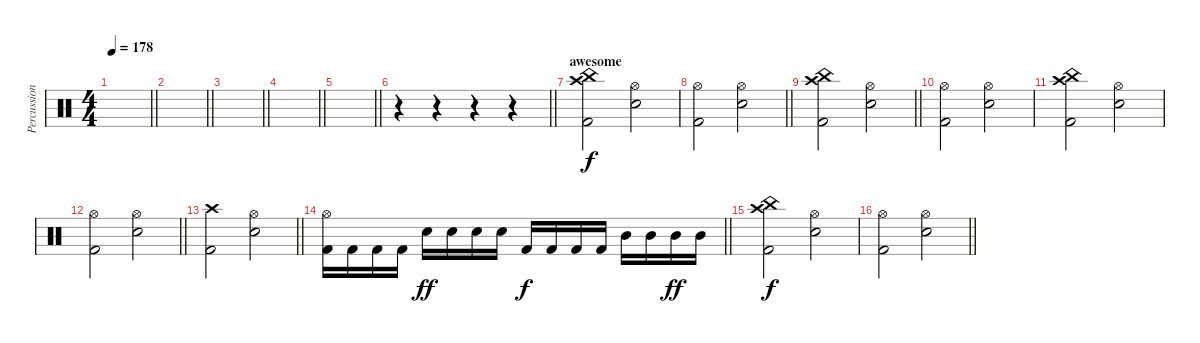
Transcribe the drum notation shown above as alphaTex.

\track ("Percussion" "Percussion") {instrument percussion}
\staff {score}
\articulation defaults
\ts (4 4)
\tempo 178
\clef neutral
\barLineRight lightlight
\ks c
|
\barLineRight lightlight
|
\barLineRight lightlight
|
\barLineRight lightlight
|
\barLineRight lightlight
|
\barLineRight lightlight
r.4 r.4 r.4 r.4 |
\section ("" "awesome")
("Crash high (hit)" "China (hit)" "Kick (hit) 2").2 ("Hi-Hat (open)" "Electric Snare (hit)").2 |
\barLineRight lightlight
("Hi-Hat (open)" "Kick (hit) 2").2 ("Hi-Hat (open)" "Electric Snare (hit)").2 |
\barLineRight lightlight
("Crash high (hit)" "China (hit)" "Kick (hit) 2").2 ("Hi-Hat (open)" "Electric Snare (hit)").2 |
("Hi-Hat (open)" "Kick (hit) 2").2 ("Hi-Hat (open)" "Electric Snare (hit)").2 |
("Crash high (hit)" "China (hit)" "Kick (hit) 2").2 ("Hi-Hat (open)" "Electric Snare (hit)").2 |
\barLineRight lightlight
("Hi-Hat (open)" "Kick (hit) 2").2 ("Hi-Hat (open)" "Snare (hit) 2").2 |
\barLineRight lightlight
("Crash high (hit)" "Kick (hit) 2").2 ("Hi-Hat (open)" "Snare (hit) 2").2 |
\barLineRight lightlight
("Hi-Hat (open)" "Kick (hit) 2").16 "Kick (hit) 2".16 "Kick (hit) 2".16 "Kick (hit) 2".16 "Electric Snare (hit)".16{dy ff} "Electric Snare (hit)".16 "Electric Snare (hit)".16 "Electric Snare (hit)".16 "Kick (hit) 2".16{dy f} "Kick (hit) 2".16 "Kick (hit) 2".16 "Kick (hit) 2".16 "Mid Tom (hit)".16 "Mid Tom (hit)".16 "Mid Tom (hit)".16{dy ff} "Mid Tom (hit)".16 |
("Crash high (hit)" "China (hit)" "Kick (hit) 2").2{dy f} ("Hi-Hat (open)" "Electric Snare (hit)").2 |
\barLineRight lightlight
("Hi-Hat (open)" "Kick (hit) 2").2 ("Hi-Hat (open)" "Electric Snare (hit)").2
